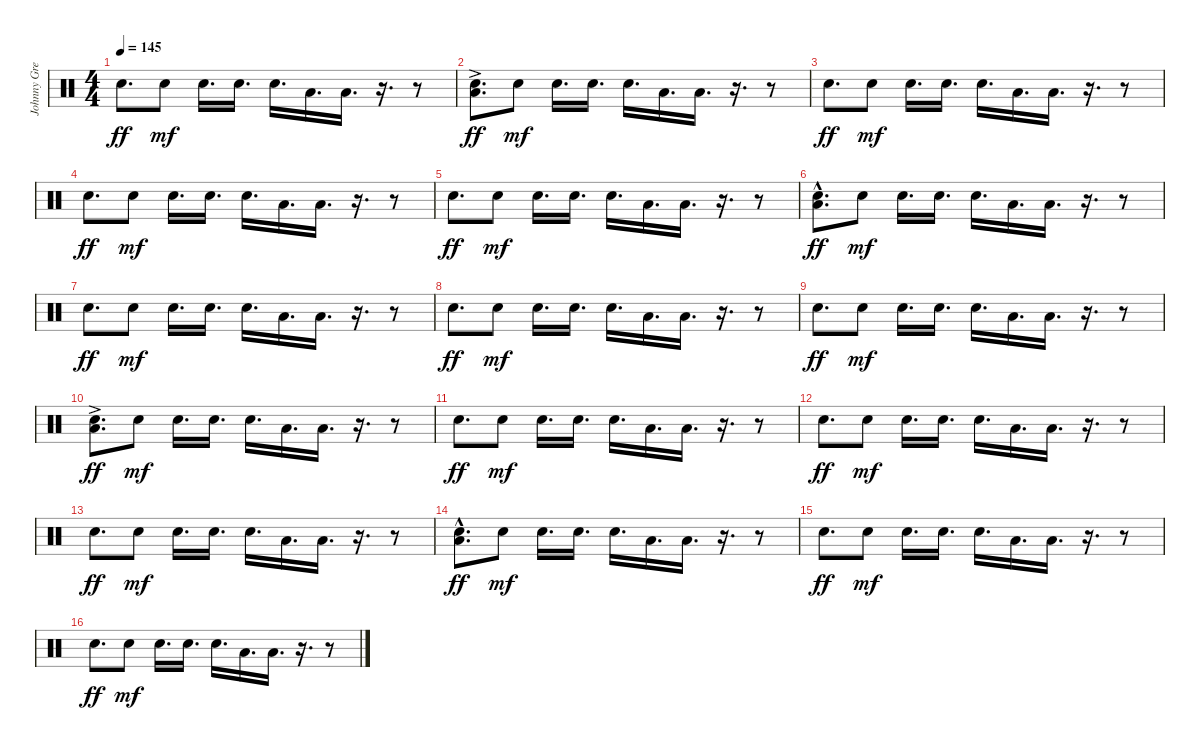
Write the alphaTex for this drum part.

\track ("Johnny Greenwood" "Johnny Gre") {instrument percussion}
\staff {score}
\articulation defaults
\ts (4 4)
\tempo 145
\clef neutral
\ks c "Snare (hit) 2".8{d dy ff} "Snare (hit) 2".8{dy mf} "Snare (hit) 2".16{d} "Snare (hit) 2".16{d} "Snare (hit) 2".16{d} "Low Floor Tom (hit)".16{d} "Low Floor Tom (hit)".16{d}
r.16{d} r.8 |
("Snare (hit) 2" "Low Floor Tom (hit)"{ac}).8{d dy ff} "Snare (hit) 2".8{dy mf} "Snare (hit) 2".16{d} "Snare (hit) 2".16{d} "Snare (hit) 2".16{d} "Low Floor Tom (hit)".16{d} "Low Floor Tom (hit)".16{d} r.16{d} r.8 |
"Snare (hit) 2".8{d dy ff} "Snare (hit) 2".8{dy mf} "Snare (hit) 2".16{d} "Snare (hit) 2".16{d} "Snare (hit) 2".16{d} "Low Floor Tom (hit)".16{d} "Low Floor Tom (hit)".16{d} r.16{d} r.8 |
"Snare (hit) 2".8{d dy ff} "Snare (hit) 2".8{dy mf} "Snare (hit) 2".16{d} "Snare (hit) 2".16{d} "Snare (hit) 2".16{d} "Low Floor Tom (hit)".16{d} "Low Floor Tom (hit)".16{d} r.16{d} r.8 |
"Snare (hit) 2".8{d dy ff} "Snare (hit) 2".8{dy mf} "Snare (hit) 2".16{d} "Snare (hit) 2".16{d} "Snare (hit) 2".16{d} "Low Floor Tom (hit)".16{d} "Low Floor Tom (hit)".16{d} r.16{d} r.8 |
("Snare (hit) 2" "Low Floor Tom (hit)"{hac}).8{d dy ff} "Snare (hit) 2".8{dy mf} "Snare (hit) 2".16{d} "Snare (hit) 2".16{d} "Snare (hit) 2".16{d} "Low Floor Tom (hit)".16{d} "Low Floor Tom (hit)".16{d} r.16{d} r.8 |
"Snare (hit) 2".8{d dy ff} "Snare (hit) 2".8{dy mf} "Snare (hit) 2".16{d} "Snare (hit) 2".16{d} "Snare (hit) 2".16{d} "Low Floor Tom (hit)".16{d} "Low Floor Tom (hit)".16{d} r.16{d} r.8 |
"Snare (hit) 2".8{d dy ff} "Snare (hit) 2".8{dy mf} "Snare (hit) 2".16{d} "Snare (hit) 2".16{d} "Snare (hit) 2".16{d} "Low Floor Tom (hit)".16{d} "Low Floor Tom (hit)".16{d} r.16{d} r.8 |
"Snare (hit) 2".8{d dy ff} "Snare (hit) 2".8{dy mf} "Snare (hit) 2".16{d} "Snare (hit) 2".16{d} "Snare (hit) 2".16{d} "Low Floor Tom (hit)".16{d} "Low Floor Tom (hit)".16{d} r.16{d} r.8 |
("Snare (hit) 2" "Low Floor Tom (hit)"{ac}).8{d dy ff} "Snare (hit) 2".8{dy mf} "Snare (hit) 2".16{d} "Snare (hit) 2".16{d} "Snare (hit) 2".16{d} "Low Floor Tom (hit)".16{d} "Low Floor Tom (hit)".16{d} r.16{d} r.8 |
"Snare (hit) 2".8{d dy ff} "Snare (hit) 2".8{dy mf} "Snare (hit) 2".16{d} "Snare (hit) 2".16{d} "Snare (hit) 2".16{d} "Low Floor Tom (hit)".16{d} "Low Floor Tom (hit)".16{d} r.16{d} r.8 |
"Snare (hit) 2".8{d dy ff} "Snare (hit) 2".8{dy mf} "Snare (hit) 2".16{d} "Snare (hit) 2".16{d} "Snare (hit) 2".16{d} "Low Floor Tom (hit)".16{d} "Low Floor Tom (hit)".16{d} r.16{d} r.8 |
"Snare (hit) 2".8{d dy ff} "Snare (hit) 2".8{dy mf} "Snare (hit) 2".16{d} "Snare (hit) 2".16{d} "Snare (hit) 2".16{d} "Low Floor Tom (hit)".16{d} "Low Floor Tom (hit)".16{d} r.16{d} r.8 |
("Snare (hit) 2" "Low Floor Tom (hit)"{hac}).8{d dy ff} "Snare (hit) 2".8{dy mf} "Snare (hit) 2".16{d} "Snare (hit) 2".16{d} "Snare (hit) 2".16{d} "Low Floor Tom (hit)".16{d} "Low Floor Tom (hit)".16{d} r.16{d} r.8 |
"Snare (hit) 2".8{d dy ff} "Snare (hit) 2".8{dy mf} "Snare (hit) 2".16{d} "Snare (hit) 2".16{d} "Snare (hit) 2".16{d} "Low Floor Tom (hit)".16{d} "Low Floor Tom (hit)".16{d} r.16{d} r.8 |
"Snare (hit) 2".8{d dy ff} "Snare (hit) 2".8{dy mf} "Snare (hit) 2".16{d} "Snare (hit) 2".16{d} "Snare (hit) 2".16{d} "Low Floor Tom (hit)".16{d} "Low Floor Tom (hit)".16{d} r.16{d} r.8
